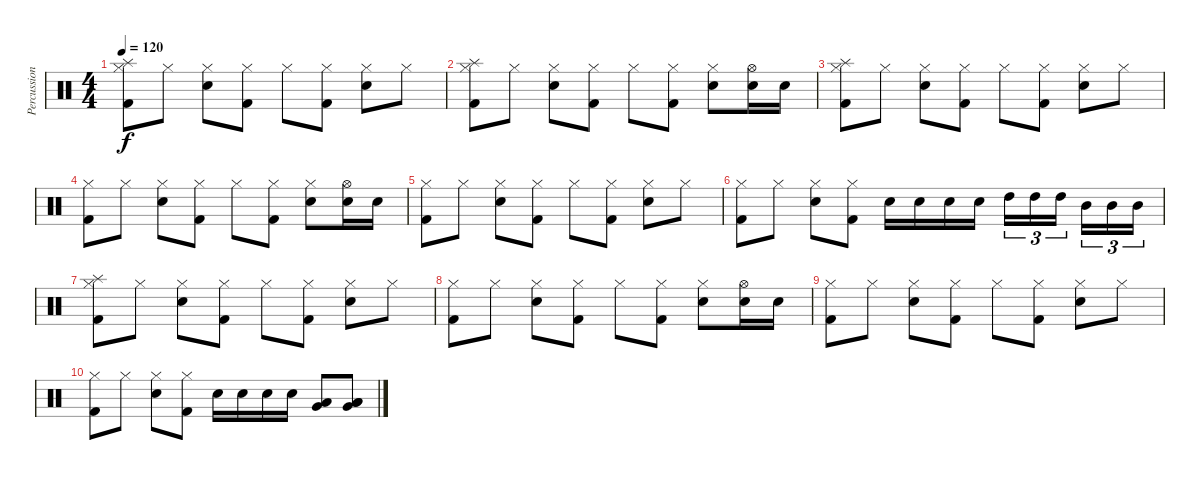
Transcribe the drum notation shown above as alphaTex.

\track ("Percussion" "Percussion") {instrument percussion}
\staff {score}
\articulation defaults
\ts (4 4)
\tempo 120
\clef neutral
\ks c
("Kick (hit) 2" "Hi-Hat (closed)" "Splash (hit)").8{dy f} "Hi-Hat (closed)".8 ("Hi-Hat (closed)" "Electric Snare (hit)").8 ("Kick (hit) 2" "Hi-Hat (closed)").8 "Hi-Hat (closed)".8 ("Kick (hit) 2" "Hi-Hat (closed)").8 ("Hi-Hat (closed)" "Electric Snare (hit)").8 "Hi-Hat (closed)".8 |
("Kick (hit) 2" "Hi-Hat (closed)" "Splash (hit)").8 "Hi-Hat (closed)".8 ("Hi-Hat (closed)" "Electric Snare (hit)").8 ("Kick (hit) 2" "Hi-Hat (closed)").8 "Hi-Hat (closed)".8 ("Kick (hit) 2" "Hi-Hat (closed)").8 ("Hi-Hat (closed)" "Electric Snare (hit)").8 ("Hi-Hat (open)" "Electric Snare (hit)").16 "Electric Snare (hit)".16 |
("Kick (hit) 2" "Hi-Hat (closed)" "Splash (hit)").8 "Hi-Hat (closed)".8 ("Hi-Hat (closed)" "Electric Snare (hit)").8 ("Kick (hit) 2" "Hi-Hat (closed)").8 "Hi-Hat (closed)".8 ("Kick (hit) 2" "Hi-Hat (closed)").8 ("Hi-Hat (closed)" "Electric Snare (hit)").8 "Hi-Hat (closed)".8 |
("Kick (hit) 2" "Hi-Hat (closed)").8 "Hi-Hat (closed)".8 ("Hi-Hat (closed)" "Electric Snare (hit)").8 ("Kick (hit) 2" "Hi-Hat (closed)").8 "Hi-Hat (closed)".8 ("Kick (hit) 2" "Hi-Hat (closed)").8 ("Hi-Hat (closed)" "Electric Snare (hit)").8 ("Hi-Hat (open)" "Electric Snare (hit)").16 "Electric Snare (hit)".16 |
("Kick (hit) 2" "Hi-Hat (closed)").8 "Hi-Hat (closed)".8 ("Hi-Hat (closed)" "Electric Snare (hit)").8 ("Kick (hit) 2" "Hi-Hat (closed)").8 "Hi-Hat (closed)".8 ("Kick (hit) 2" "Hi-Hat (closed)").8 ("Hi-Hat (closed)" "Electric Snare (hit)").8 "Hi-Hat (closed)".8 |
("Kick (hit) 2" "Hi-Hat (closed)").8 "Hi-Hat (closed)".8 ("Hi-Hat (closed)" "Electric Snare (hit)").8 ("Kick (hit) 2" "Hi-Hat (closed)").8 "Electric Snare (hit)".16 "Electric Snare (hit)".16 "Electric Snare (hit)".16 "Electric Snare (hit)".16 "High Tom (hit)".16{tu (3 2)} "High Tom (hit)".16{tu (3 2)} "High Tom (hit)".16{tu (3 2)} "Mid Tom (hit)".16{tu (3 2)} "Mid Tom (hit)".16{tu (3 2)} "Mid Tom (hit)".16{tu (3 2)} |
("Kick (hit) 2" "Hi-Hat (closed)" "Splash (hit)").8 "Hi-Hat (closed)".8 ("Hi-Hat (closed)" "Electric Snare (hit)").8 ("Kick (hit) 2" "Hi-Hat (closed)").8 "Hi-Hat (closed)".8 ("Kick (hit) 2" "Hi-Hat (closed)").8 ("Hi-Hat (closed)" "Electric Snare (hit)").8 "Hi-Hat (closed)".8 |
("Kick (hit) 2" "Hi-Hat (closed)").8 "Hi-Hat (closed)".8 ("Hi-Hat (closed)" "Electric Snare (hit)").8 ("Kick (hit) 2" "Hi-Hat (closed)").8 "Hi-Hat (closed)".8 ("Kick (hit) 2" "Hi-Hat (closed)").8 ("Hi-Hat (closed)" "Electric Snare (hit)").8 ("Hi-Hat (open)" "Electric Snare (hit)").16 "Electric Snare (hit)".16 |
("Kick (hit) 2" "Hi-Hat (closed)").8 "Hi-Hat (closed)".8 ("Hi-Hat (closed)" "Electric Snare (hit)").8 ("Kick (hit) 2" "Hi-Hat (closed)").8 "Hi-Hat (closed)".8 ("Kick (hit) 2" "Hi-Hat (closed)").8 ("Hi-Hat (closed)" "Electric Snare (hit)").8 "Hi-Hat (closed)".8 |
("Kick (hit) 2" "Hi-Hat (closed)").8 "Hi-Hat (closed)".8 ("Hi-Hat (closed)" "Electric Snare (hit)").8 ("Kick (hit) 2" "Hi-Hat (closed)").8 "Electric Snare (hit)".16 "Electric Snare (hit)".16 "Electric Snare (hit)".16 "Electric Snare (hit)".16 ("Low Tom (hit)" "Very Low Tom (hit)").8 ("Low Tom (hit)" "Very Low Tom (hit)" "Low Floor Tom (hit)").8
